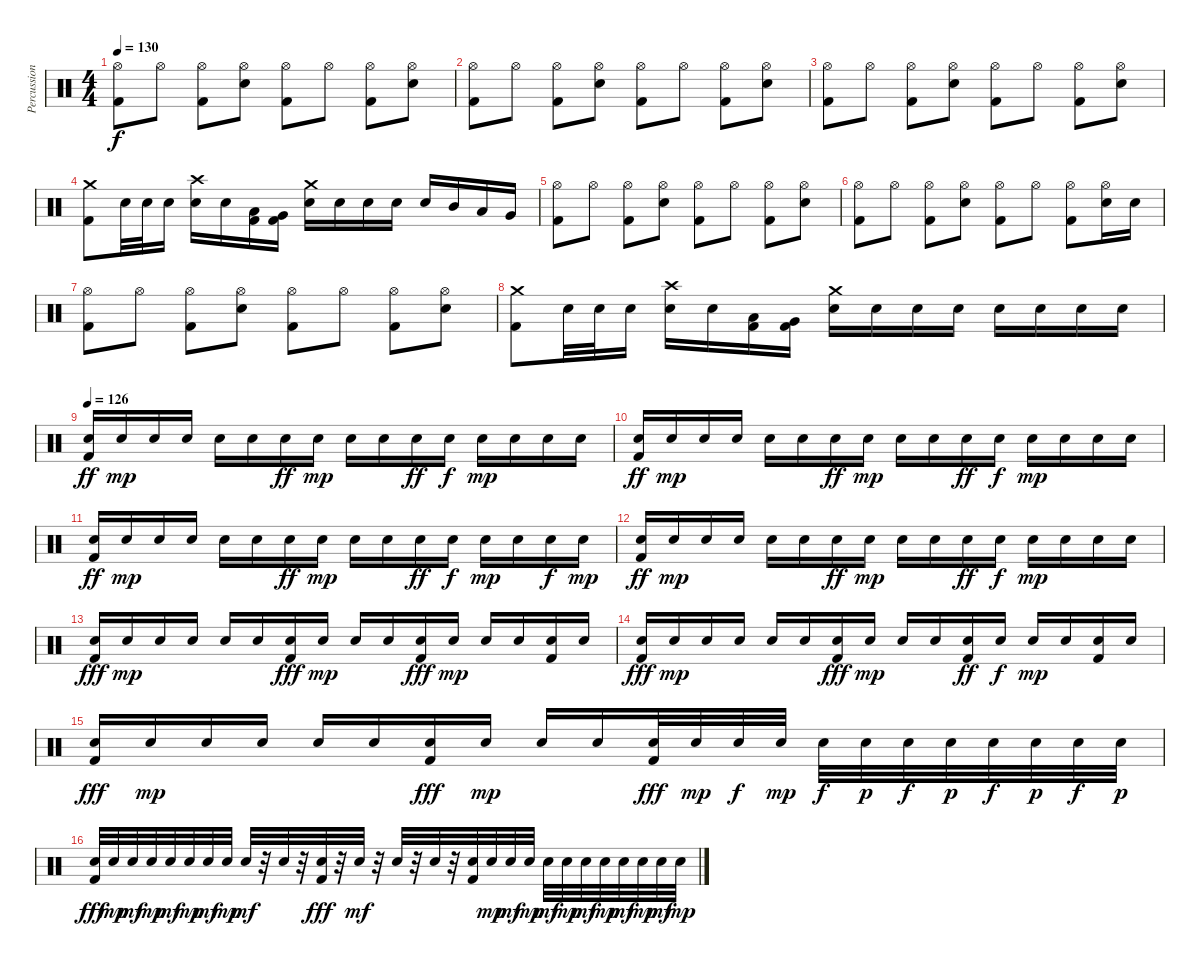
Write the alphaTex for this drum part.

\track ("Percussion" "Percussion") {instrument percussion}
\staff {score}
\articulation defaults
\ts (4 4)
\tempo 130
\clef neutral
\ks c
("Kick (hit) 2" "Hi-Hat (open)").8{dy f} "Hi-Hat (open)".8 ("Kick (hit) 2" "Hi-Hat (open)").8 ("Electric Snare (hit)" "Hi-Hat (open)").8 ("Kick (hit) 2" "Hi-Hat (open)").8 "Hi-Hat (open)".8 ("Kick (hit) 2" "Hi-Hat (open)").8 ("Electric Snare (hit)" "Hi-Hat (open)").8 |
("Kick (hit) 2" "Hi-Hat (open)").8 "Hi-Hat (open)".8 ("Kick (hit) 2" "Hi-Hat (open)").8 ("Electric Snare (hit)" "Hi-Hat (open)").8 ("Kick (hit) 2" "Hi-Hat (open)").8 "Hi-Hat (open)".8 ("Kick (hit) 2" "Hi-Hat (open)").8 ("Electric Snare (hit)" "Hi-Hat (open)").8 |
("Kick (hit) 2" "Hi-Hat (open)").8 "Hi-Hat (open)".8 ("Kick (hit) 2" "Hi-Hat (open)").8 ("Electric Snare (hit)" "Hi-Hat (open)").8 ("Kick (hit) 2" "Hi-Hat (open)").8 "Hi-Hat (open)".8 ("Kick (hit) 2" "Hi-Hat (open)").8 ("Electric Snare (hit)" "Hi-Hat (open)").8 |
("Kick (hit) 2" "Crash medium (hit)").8 "Electric Snare (hit)".32 "Electric Snare (hit)".32 "Electric Snare (hit)".16 ("Electric Snare (hit)" "Crash high (hit)").16 "Electric Snare (hit)".16 ("Kick (hit) 2" "Low Tom (hit)").16 ("Kick (hit) 2" "Very Low Tom (hit)").16 ("Electric Snare (hit)" "Crash medium (hit)").16 "Electric Snare (hit)".16 "Electric Snare (hit)".16 "Electric Snare (hit)".16 "Electric Snare (hit)".16 "Mid Tom (hit)".16 "Low Tom (hit)".16 "Very Low Tom (hit)".16 |
("Kick (hit) 2" "Hi-Hat (open)").8 "Hi-Hat (open)".8 ("Kick (hit) 2" "Hi-Hat (open)").8 ("Electric Snare (hit)" "Hi-Hat (open)").8 ("Kick (hit) 2" "Hi-Hat (open)").8 "Hi-Hat (open)".8 ("Kick (hit) 2" "Hi-Hat (open)").8 ("Electric Snare (hit)" "Hi-Hat (open)").8 |
("Kick (hit) 2" "Hi-Hat (open)").8 "Hi-Hat (open)".8 ("Kick (hit) 2" "Hi-Hat (open)").8 ("Electric Snare (hit)" "Hi-Hat (open)").8 ("Kick (hit) 2" "Hi-Hat (open)").8 "Hi-Hat (open)".8 ("Kick (hit) 2" "Hi-Hat (open)").8 ("Electric Snare (hit)" "Hi-Hat (open)").16 "Electric Snare (hit)".16 |
("Kick (hit) 2" "Hi-Hat (open)").8 "Hi-Hat (open)".8 ("Kick (hit) 2" "Hi-Hat (open)").8 ("Electric Snare (hit)" "Hi-Hat (open)").8 ("Kick (hit) 2" "Hi-Hat (open)").8 "Hi-Hat (open)".8 ("Kick (hit) 2" "Hi-Hat (open)").8 ("Electric Snare (hit)" "Hi-Hat (open)").8 |
("Kick (hit) 2" "Crash medium (hit)").8 "Electric Snare (hit)".32 "Electric Snare (hit)".32 "Electric Snare (hit)".16 ("Electric Snare (hit)" "Crash high (hit)").16 "Electric Snare (hit)".16 ("Kick (hit) 2" "Low Tom (hit)").16 ("Kick (hit) 2" "Very Low Tom (hit)").16 ("Electric Snare (hit)" "Crash medium (hit)").16 "Electric Snare (hit)".16 "Electric Snare (hit)".16 "Electric Snare (hit)".16 "Electric Snare (hit)".16 "Electric Snare (hit)".16 "Electric Snare (hit)".16 "Electric Snare (hit)".16 |
\tempo 126
("Kick (hit) 2" "Electric Snare (hit)").16{dy ff} "Electric Snare (hit)".16{dy mp} "Electric Snare (hit)".16 "Electric Snare (hit)".16 "Electric Snare (hit)".16 "Electric Snare (hit)".16 "Electric Snare (hit)".16{dy ff} "Electric Snare (hit)".16{dy mp} "Electric Snare (hit)".16 "Electric Snare (hit)".16 "Electric Snare (hit)".16{dy ff} "Electric Snare (hit)".16{dy f} "Electric Snare (hit)".16{dy mp} "Electric Snare (hit)".16 "Electric Snare (hit)".16 "Electric Snare (hit)".16 |
("Kick (hit) 2" "Electric Snare (hit)").16{dy ff} "Electric Snare (hit)".16{dy mp} "Electric Snare (hit)".16 "Electric Snare (hit)".16 "Electric Snare (hit)".16 "Electric Snare (hit)".16 "Electric Snare (hit)".16{dy ff} "Electric Snare (hit)".16{dy mp} "Electric Snare (hit)".16 "Electric Snare (hit)".16 "Electric Snare (hit)".16{dy ff} "Electric Snare (hit)".16{dy f} "Electric Snare (hit)".16{dy mp} "Electric Snare (hit)".16 "Electric Snare (hit)".16 "Electric Snare (hit)".16 |
("Kick (hit) 2" "Electric Snare (hit)").16{dy ff} "Electric Snare (hit)".16{dy mp} "Electric Snare (hit)".16 "Electric Snare (hit)".16 "Electric Snare (hit)".16 "Electric Snare (hit)".16 "Electric Snare (hit)".16{dy ff} "Electric Snare (hit)".16{dy mp} "Electric Snare (hit)".16 "Electric Snare (hit)".16 "Electric Snare (hit)".16{dy ff} "Electric Snare (hit)".16{dy f} "Electric Snare (hit)".16{dy mp} "Electric Snare (hit)".16 "Electric Snare (hit)".16{dy f} "Electric Snare (hit)".16{dy mp} |
("Kick (hit) 2" "Electric Snare (hit)").16{dy ff} "Electric Snare (hit)".16{dy mp} "Electric Snare (hit)".16 "Electric Snare (hit)".16 "Electric Snare (hit)".16 "Electric Snare (hit)".16 "Electric Snare (hit)".16{dy ff} "Electric Snare (hit)".16{dy mp} "Electric Snare (hit)".16 "Electric Snare (hit)".16 "Electric Snare (hit)".16{dy ff} "Electric Snare (hit)".16{dy f} "Electric Snare (hit)".16{dy mp} "Electric Snare (hit)".16 "Electric Snare (hit)".16 "Electric Snare (hit)".16 |
("Kick (hit) 2" "Electric Snare (hit)").16{dy fff} "Electric Snare (hit)".16{dy mp} "Electric Snare (hit)".16 "Electric Snare (hit)".16 "Electric Snare (hit)".16 "Electric Snare (hit)".16 ("Kick (hit) 2" "Electric Snare (hit)").16{dy fff} "Electric Snare (hit)".16{dy mp} "Electric Snare (hit)".16 "Electric Snare (hit)".16 ("Kick (hit) 2" "Electric Snare (hit)").16{dy fff} "Electric Snare (hit)".16{dy mp} "Electric Snare (hit)".16 "Electric Snare (hit)".16 ("Kick (hit) 2" "Electric Snare (hit)").16 "Electric Snare (hit)".16 |
("Kick (hit) 2" "Electric Snare (hit)").16{dy fff} "Electric Snare (hit)".16{dy mp} "Electric Snare (hit)".16 "Electric Snare (hit)".16 "Electric Snare (hit)".16 "Electric Snare (hit)".16 ("Kick (hit) 2" "Electric Snare (hit)").16{dy fff} "Electric Snare (hit)".16{dy mp} "Electric Snare (hit)".16 "Electric Snare (hit)".16 ("Kick (hit) 2" "Electric Snare (hit)").16{dy ff} "Electric Snare (hit)".16{dy f} "Electric Snare (hit)".16{dy mp} "Electric Snare (hit)".16 ("Kick (hit) 2" "Electric Snare (hit)").16 "Electric Snare (hit)".16 |
("Kick (hit) 2" "Electric Snare (hit)").16{dy fff} "Electric Snare (hit)".16{dy mp} "Electric Snare (hit)".16 "Electric Snare (hit)".16 "Electric Snare (hit)".16 "Electric Snare (hit)".16 ("Kick (hit) 2" "Electric Snare (hit)").16{dy fff} "Electric Snare (hit)".16{dy mp} "Electric Snare (hit)".16 "Electric Snare (hit)".16 ("Kick (hit) 2" "Electric Snare (hit)").32{dy fff} "Electric Snare (hit)".32{dy mp} "Electric Snare (hit)".32{dy f} "Electric Snare (hit)".32{dy mp} "Electric Snare (hit)".32{dy f} "Electric Snare (hit)".32{dy p} "Electric Snare (hit)".32{dy f} "Electric Snare (hit)".32{dy p} "Electric Snare (hit)".32{dy f} "Electric Snare (hit)".32{dy p} "Electric Snare (hit)".32{dy f} "Electric Snare (hit)".32{dy p} |
("Kick (hit) 2" "Electric Snare (hit)").32{dy fff} "Electric Snare (hit)".32{dy mp} "Electric Snare (hit)".32{dy mf} "Electric Snare (hit)".32{dy mp} "Electric Snare (hit)".32{dy mf} "Electric Snare (hit)".32{dy mp} "Electric Snare (hit)".32{dy mf} "Electric Snare (hit)".32{dy mp} "Electric Snare (hit)".32{dy mf} r.32 "Electric Snare (hit)".32 r.32 ("Kick (hit) 2" "Electric Snare (hit)").32{dy fff} r.32 "Electric Snare (hit)".32{dy mf} r.32 "Electric Snare (hit)".32 r.32 "Electric Snare (hit)".32 r.32 ("Kick (hit) 2" "Electric Snare (hit)").32 "Electric Snare (hit)".32{dy mp} "Electric Snare (hit)".32{dy mf} "Electric Snare (hit)".32{dy mp} "Electric Snare (hit)".32{dy mf} "Electric Snare (hit)".32{dy mp} "Electric Snare (hit)".32{dy mf} "Electric Snare (hit)".32{dy mp} "Electric Snare (hit)".32{dy mf} "Electric Snare (hit)".32{dy mp} "Electric Snare (hit)".32{dy mf} "Electric Snare (hit)".32{dy mp}
